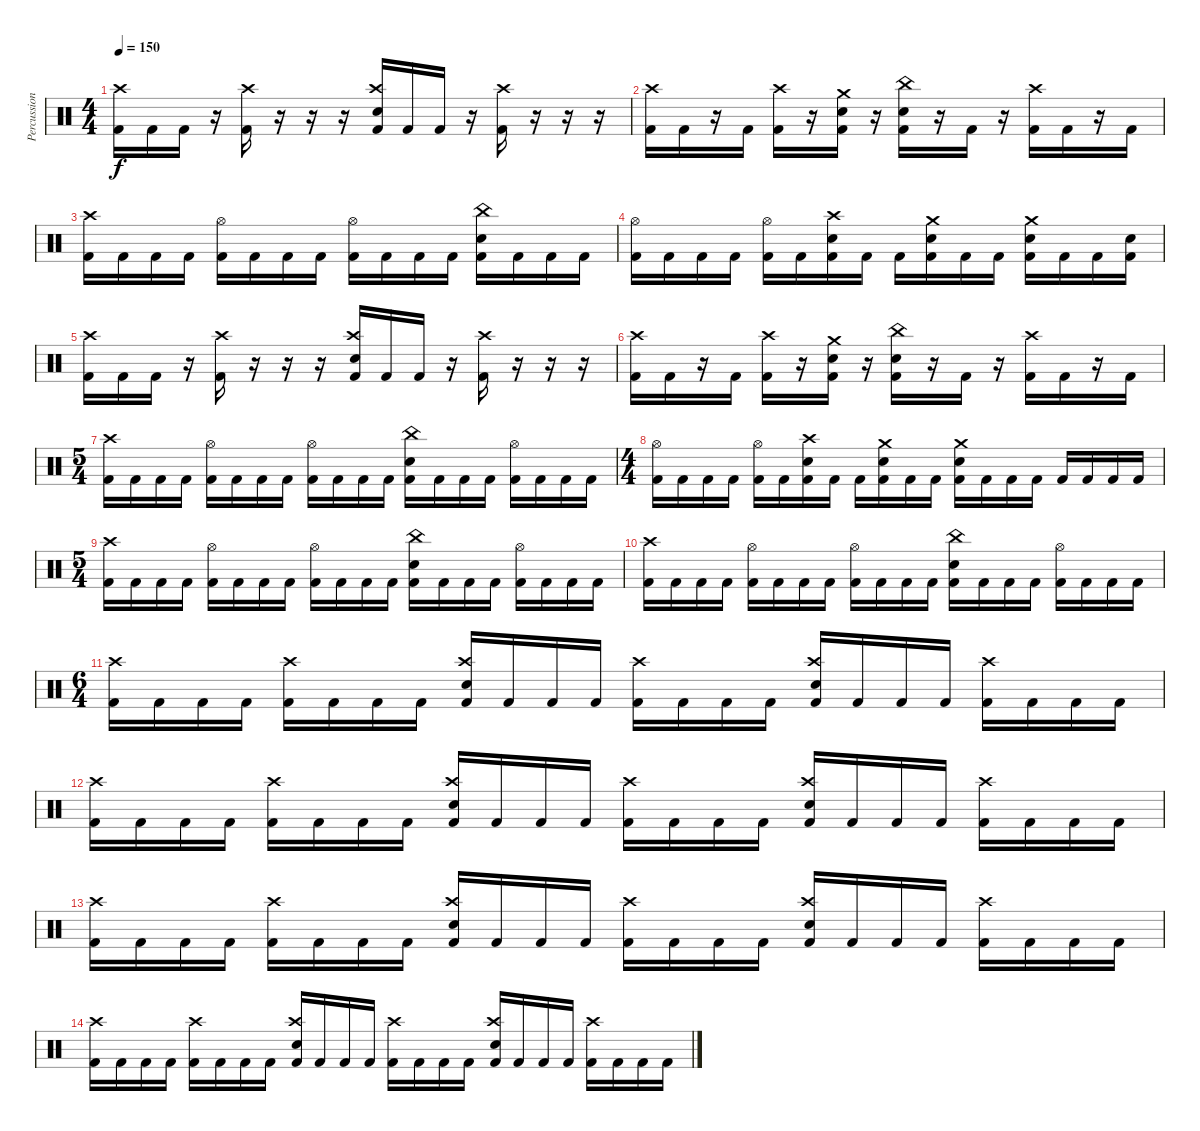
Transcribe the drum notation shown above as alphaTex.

\track ("Percussion" "Percussion") {instrument percussion}
\staff {score}
\articulation defaults
\ts (4 4)
\tempo 150
\clef neutral
\ks c
("Kick (hit) 2" "Crash high (hit)").16{dy f} "Kick (hit) 2".16 "Kick (hit) 2".16 r.16 ("Kick (hit) 2" "Crash high (hit)").16 r.16 r.16 r.16 ("Kick (hit) 2" "Crash high (hit)" "Electric Snare (hit)").16 "Kick (hit) 2".16 "Kick (hit) 2".16 r.16 ("Kick (hit) 2" "Crash high (hit)").16 r.16 r.16 r.16 |
("Kick (hit) 2" "Crash high (hit)").16 "Kick (hit) 2".16 r.16 "Kick (hit) 2".16 ("Kick (hit) 2" "Crash high (hit)").16 r.16 ("Kick (hit) 2" "Crash medium (hit)" "Electric Snare (hit)").16 r.16 ("Kick (hit) 2" "China (hit)" "Electric Snare (hit)").16 r.16 "Kick (hit) 2".16 r.16 ("Kick (hit) 2" "Crash high (hit)").16 "Kick (hit) 2".16 r.16 "Kick (hit) 2".16 |
("Kick (hit) 2" "Crash high (hit)").16 "Kick (hit) 2".16 "Kick (hit) 2".16 "Kick (hit) 2".16 ("Kick (hit) 2" "Hi-Hat (open)").16 "Kick (hit) 2".16 "Kick (hit) 2".16 "Kick (hit) 2".16 ("Kick (hit) 2" "Hi-Hat (open)").16 "Kick (hit) 2".16 "Kick (hit) 2".16 "Kick (hit) 2".16 ("Kick (hit) 2" "Electric Snare (hit)" "China (hit)").16 "Kick (hit) 2".16 "Kick (hit) 2".16 "Kick (hit) 2".16 |
("Kick (hit) 2" "Hi-Hat (open)").16 "Kick (hit) 2".16 "Kick (hit) 2".16 "Kick (hit) 2".16 ("Kick (hit) 2" "Hi-Hat (open)").16 "Kick (hit) 2".16 ("Kick (hit) 2" "Electric Snare (hit)" "Crash high (hit)").16 "Kick (hit) 2".16 "Kick (hit) 2".16 ("Kick (hit) 2" "Electric Snare (hit)" "Crash medium (hit)").16 "Kick (hit) 2".16 "Kick (hit) 2".16 ("Kick (hit) 2" "Electric Snare (hit)" "Crash medium (hit)").16 "Kick (hit) 2".16 "Kick (hit) 2".16 ("Kick (hit) 2" "Electric Snare (hit)").16 |
("Kick (hit) 2" "Crash high (hit)").16 "Kick (hit) 2".16 "Kick (hit) 2".16 r.16 ("Kick (hit) 2" "Crash high (hit)").16 r.16 r.16 r.16 ("Kick (hit) 2" "Crash high (hit)" "Electric Snare (hit)").16 "Kick (hit) 2".16 "Kick (hit) 2".16 r.16 ("Kick (hit) 2" "Crash high (hit)").16 r.16 r.16 r.16 |
("Kick (hit) 2" "Crash high (hit)").16 "Kick (hit) 2".16 r.16 "Kick (hit) 2".16 ("Kick (hit) 2" "Crash high (hit)").16 r.16 ("Kick (hit) 2" "Crash medium (hit)" "Electric Snare (hit)").16 r.16 ("Kick (hit) 2" "China (hit)" "Electric Snare (hit)").16 r.16 "Kick (hit) 2".16 r.16 ("Kick (hit) 2" "Crash high (hit)").16 "Kick (hit) 2".16 r.16 "Kick (hit) 2".16 |
\ts (5 4)
("Kick (hit) 2" "Crash high (hit)").16 "Kick (hit) 2".16 "Kick (hit) 2".16 "Kick (hit) 2".16 ("Kick (hit) 2" "Hi-Hat (open)").16 "Kick (hit) 2".16 "Kick (hit) 2".16 "Kick (hit) 2".16 ("Kick (hit) 2" "Hi-Hat (open)").16 "Kick (hit) 2".16 "Kick (hit) 2".16 "Kick (hit) 2".16 ("Kick (hit) 2" "Electric Snare (hit)" "China (hit)").16 "Kick (hit) 2".16 "Kick (hit) 2".16 "Kick (hit) 2".16 ("Kick (hit) 2" "Hi-Hat (open)").16 "Kick (hit) 2".16 "Kick (hit) 2".16 "Kick (hit) 2".16 |
\ts (4 4)
("Kick (hit) 2" "Hi-Hat (open)").16 "Kick (hit) 2".16 "Kick (hit) 2".16 "Kick (hit) 2".16 ("Kick (hit) 2" "Hi-Hat (open)").16 "Kick (hit) 2".16 ("Kick (hit) 2" "Electric Snare (hit)" "Crash high (hit)").16 "Kick (hit) 2".16 "Kick (hit) 2".16 ("Kick (hit) 2" "Electric Snare (hit)" "Crash medium (hit)").16 "Kick (hit) 2".16 "Kick (hit) 2".16 ("Kick (hit) 2" "Electric Snare (hit)" "Crash medium (hit)").16 "Kick (hit) 2".16 "Kick (hit) 2".16 "Kick (hit) 2".16 "Kick (hit) 2".16 "Kick (hit) 2".16 "Kick (hit) 2".16 "Kick (hit) 2".16 |
\ts (5 4)
("Kick (hit) 2" "Crash high (hit)").16 "Kick (hit) 2".16 "Kick (hit) 2".16 "Kick (hit) 2".16 ("Kick (hit) 2" "Hi-Hat (open)").16 "Kick (hit) 2".16 "Kick (hit) 2".16 "Kick (hit) 2".16 ("Kick (hit) 2" "Hi-Hat (open)").16 "Kick (hit) 2".16 "Kick (hit) 2".16 "Kick (hit) 2".16 ("Kick (hit) 2" "Electric Snare (hit)" "China (hit)").16 "Kick (hit) 2".16 "Kick (hit) 2".16 "Kick (hit) 2".16 ("Kick (hit) 2" "Hi-Hat (open)").16 "Kick (hit) 2".16 "Kick (hit) 2".16 "Kick (hit) 2".16 |
("Kick (hit) 2" "Crash high (hit)").16 "Kick (hit) 2".16 "Kick (hit) 2".16 "Kick (hit) 2".16 ("Kick (hit) 2" "Hi-Hat (open)").16 "Kick (hit) 2".16 "Kick (hit) 2".16 "Kick (hit) 2".16 ("Kick (hit) 2" "Hi-Hat (open)").16 "Kick (hit) 2".16 "Kick (hit) 2".16 "Kick (hit) 2".16 ("Kick (hit) 2" "Electric Snare (hit)" "China (hit)").16 "Kick (hit) 2".16 "Kick (hit) 2".16 "Kick (hit) 2".16 ("Kick (hit) 2" "Hi-Hat (open)").16 "Kick (hit) 2".16 "Kick (hit) 2".16 "Kick (hit) 2".16 |
\ts (6 4)
("Kick (hit) 2" "Crash high (hit)").16 "Kick (hit) 2".16 "Kick (hit) 2".16 "Kick (hit) 2".16 ("Kick (hit) 2" "Crash high (hit)").16 "Kick (hit) 2".16 "Kick (hit) 2".16 "Kick (hit) 2".16 ("Kick (hit) 2" "Electric Snare (hit)" "Crash high (hit)").16 "Kick (hit) 2".16 "Kick (hit) 2".16 "Kick (hit) 2".16 ("Kick (hit) 2" "Crash high (hit)").16 "Kick (hit) 2".16 "Kick (hit) 2".16 "Kick (hit) 2".16 ("Kick (hit) 2" "Electric Snare (hit)" "Crash high (hit)").16 "Kick (hit) 2".16 "Kick (hit) 2".16 "Kick (hit) 2".16 ("Kick (hit) 2" "Crash high (hit)").16 "Kick (hit) 2".16 "Kick (hit) 2".16 "Kick (hit) 2".16 |
("Kick (hit) 2" "Crash high (hit)").16 "Kick (hit) 2".16 "Kick (hit) 2".16 "Kick (hit) 2".16 ("Kick (hit) 2" "Crash high (hit)").16 "Kick (hit) 2".16 "Kick (hit) 2".16 "Kick (hit) 2".16 ("Kick (hit) 2" "Electric Snare (hit)" "Crash high (hit)").16 "Kick (hit) 2".16 "Kick (hit) 2".16 "Kick (hit) 2".16 ("Kick (hit) 2" "Crash high (hit)").16 "Kick (hit) 2".16 "Kick (hit) 2".16 "Kick (hit) 2".16 ("Kick (hit) 2" "Electric Snare (hit)" "Crash high (hit)").16 "Kick (hit) 2".16 "Kick (hit) 2".16 "Kick (hit) 2".16 ("Kick (hit) 2" "Crash high (hit)").16 "Kick (hit) 2".16 "Kick (hit) 2".16 "Kick (hit) 2".16 |
("Kick (hit) 2" "Crash high (hit)").16 "Kick (hit) 2".16 "Kick (hit) 2".16 "Kick (hit) 2".16 ("Kick (hit) 2" "Crash high (hit)").16 "Kick (hit) 2".16 "Kick (hit) 2".16 "Kick (hit) 2".16 ("Kick (hit) 2" "Electric Snare (hit)" "Crash high (hit)").16 "Kick (hit) 2".16 "Kick (hit) 2".16 "Kick (hit) 2".16 ("Kick (hit) 2" "Crash high (hit)").16 "Kick (hit) 2".16 "Kick (hit) 2".16 "Kick (hit) 2".16 ("Kick (hit) 2" "Electric Snare (hit)" "Crash high (hit)").16 "Kick (hit) 2".16 "Kick (hit) 2".16 "Kick (hit) 2".16 ("Kick (hit) 2" "Crash high (hit)").16 "Kick (hit) 2".16 "Kick (hit) 2".16 "Kick (hit) 2".16 |
("Kick (hit) 2" "Crash high (hit)").16 "Kick (hit) 2".16 "Kick (hit) 2".16 "Kick (hit) 2".16 ("Kick (hit) 2" "Crash high (hit)").16 "Kick (hit) 2".16 "Kick (hit) 2".16 "Kick (hit) 2".16 ("Kick (hit) 2" "Electric Snare (hit)" "Crash high (hit)").16 "Kick (hit) 2".16 "Kick (hit) 2".16 "Kick (hit) 2".16 ("Kick (hit) 2" "Crash high (hit)").16 "Kick (hit) 2".16 "Kick (hit) 2".16 "Kick (hit) 2".16 ("Kick (hit) 2" "Electric Snare (hit)" "Crash high (hit)").16 "Kick (hit) 2".16 "Kick (hit) 2".16 "Kick (hit) 2".16 ("Kick (hit) 2" "Crash high (hit)").16 "Kick (hit) 2".16 "Kick (hit) 2".16 "Kick (hit) 2".16
